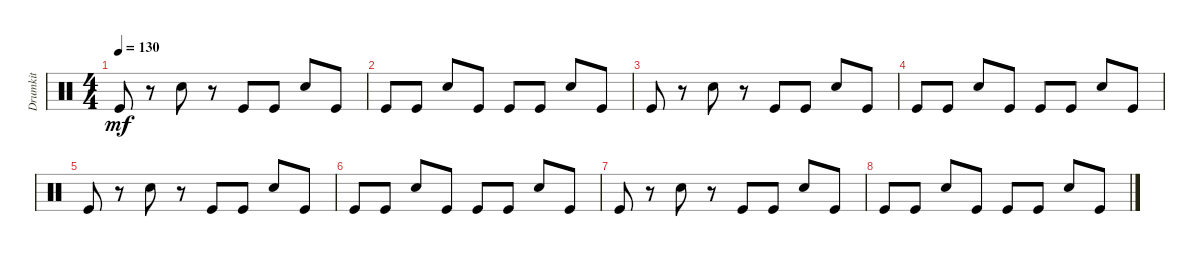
\track ("Drumkit" "Drumkit") {instrument percussion}
\staff {score}
\articulation defaults
\ts (4 4)
\tempo 130
\clef neutral
\ks c "Kick (hit)".8{dy mf}
r.8 "Snare (hit) 2".8 r.8 "Kick (hit)".8 "Kick (hit)".8 "Snare (hit) 2".8 "Kick (hit)".8 |
"Kick (hit)".8 "Kick (hit)".8 "Snare (hit) 2".8 "Kick (hit)".8 "Kick (hit)".8 "Kick (hit)".8 "Snare (hit) 2".8 "Kick (hit)".8 |
"Kick (hit)".8 r.8 "Snare (hit) 2".8 r.8 "Kick (hit)".8 "Kick (hit)".8 "Snare (hit) 2".8 "Kick (hit)".8 |
"Kick (hit)".8 "Kick (hit)".8 "Snare (hit) 2".8 "Kick (hit)".8 "Kick (hit)".8 "Kick (hit)".8 "Snare (hit) 2".8 "Kick (hit)".8 |
"Kick (hit)".8 r.8 "Snare (hit) 2".8 r.8 "Kick (hit)".8 "Kick (hit)".8 "Snare (hit) 2".8 "Kick (hit)".8 |
"Kick (hit)".8 "Kick (hit)".8 "Snare (hit) 2".8 "Kick (hit)".8 "Kick (hit)".8 "Kick (hit)".8 "Snare (hit) 2".8 "Kick (hit)".8 |
"Kick (hit)".8 r.8 "Snare (hit) 2".8 r.8 "Kick (hit)".8 "Kick (hit)".8 "Snare (hit) 2".8 "Kick (hit)".8 |
"Kick (hit)".8 "Kick (hit)".8 "Snare (hit) 2".8 "Kick (hit)".8 "Kick (hit)".8 "Kick (hit)".8 "Snare (hit) 2".8 "Kick (hit)".8
